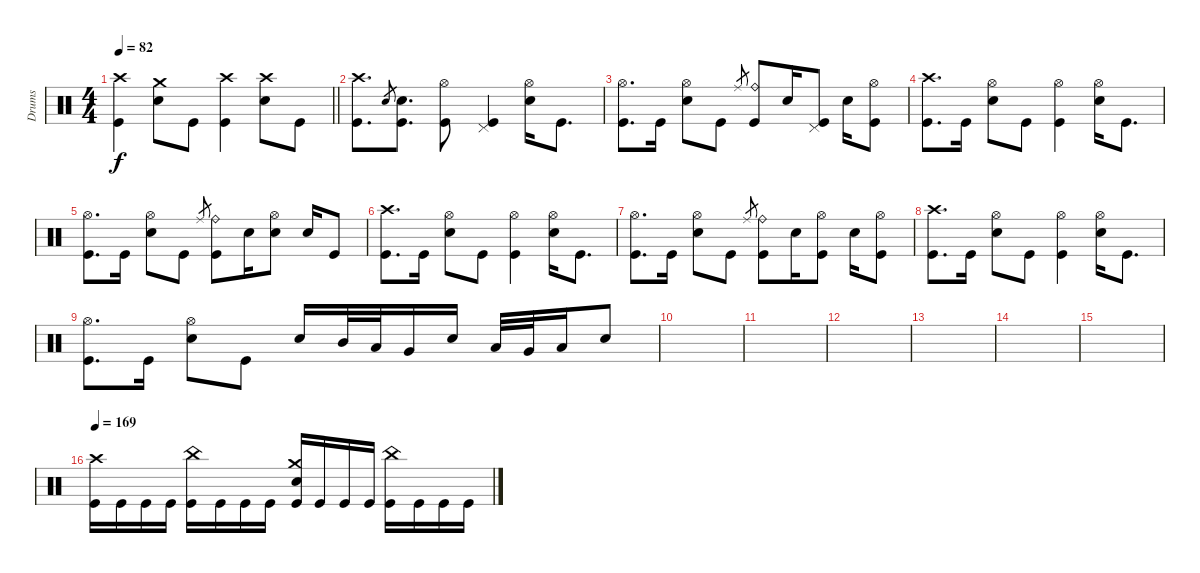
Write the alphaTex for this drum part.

\track ("Drums" "Drums") {instrument percussion}
\staff
\articulation defaults
\ts (4 4)
\tempo 82
\clef neutral
\barLineRight lightlight
\ks c
("Crash high (hit)" "Kick (hit)").4{dy f} ("Crash medium (hit)" "Electric Snare (hit)").8 "Kick (hit)".8 ("Crash high (hit)" "Kick (hit)").4 ("Crash high (hit)" "Electric Snare (hit)").8 "Kick (hit)".8 |
\section ("" "")
("Crash high (hit)" "Kick (hit)").8{d} "Electric Snare (hit)".8{gr} ("Electric Snare (hit)" "Kick (hit)").8{d} ("Hi-Hat (open)" "Kick (hit)").8 ("Pedal Hi-Hat (hit)" "Kick (hit)").4 ("Hi-Hat (open)" "Electric Snare (hit)").16 "Kick (hit)".8{d} |
("Hi-Hat (open)" "Kick (hit)").8{d} "Kick (hit)".16 ("Hi-Hat (open)" "Electric Snare (hit)").8 "Kick (hit)".8 "Ride (middle)".8{gr} ("Ride (bell)" "Kick (hit)").8 "Electric Snare (hit)".16 ("Pedal Hi-Hat (hit)" "Kick (hit)").8 "Electric Snare (hit)".16 ("Hi-Hat (open)" "Kick (hit)").8 |
("Crash high (hit)" "Kick (hit)").8{d} "Kick (hit)".16 ("Hi-Hat (open)" "Electric Snare (hit)").8 "Kick (hit)".8 ("Hi-Hat (open)" "Kick (hit)").4 ("Hi-Hat (open)" "Electric Snare (hit)").16 "Kick (hit)".8{d} |
("Hi-Hat (open)" "Kick (hit)").8{d} "Kick (hit)".16 ("Hi-Hat (open)" "Electric Snare (hit)").8 "Kick (hit)".8 "Ride (middle)".8{gr} ("Ride (bell)" "Kick (hit)").8 "Electric Snare (hit)".16 ("Hi-Hat (open)" "Electric Snare (hit)").8 "Electric Snare (hit)".16 "Kick (hit)".8 |
("Crash high (hit)" "Kick (hit)").8{d} "Kick (hit)".16 ("Hi-Hat (open)" "Electric Snare (hit)").8 "Kick (hit)".8 ("Hi-Hat (open)" "Kick (hit)").4 ("Hi-Hat (open)" "Electric Snare (hit)").16 "Kick (hit)".8{d} |
("Hi-Hat (open)" "Kick (hit)").8{d} "Kick (hit)".16 ("Hi-Hat (open)" "Electric Snare (hit)").8 "Kick (hit)".8 "Ride (middle)".8{gr} ("Ride (bell)" "Kick (hit)").8 "Electric Snare (hit)".16 ("Hi-Hat (open)" "Kick (hit)").8 "Electric Snare (hit)".16 ("Hi-Hat (open)" "Kick (hit)").8 |
("Crash high (hit)" "Kick (hit)").8{d} "Kick (hit)".16 ("Hi-Hat (open)" "Electric Snare (hit)").8 "Kick (hit)".8 ("Hi-Hat (open)" "Kick (hit)").4 ("Hi-Hat (open)" "Electric Snare (hit)").16 "Kick (hit)".8{d} |
("Hi-Hat (open)" "Kick (hit)").8{d} "Kick (hit)".16 ("Hi-Hat (open)" "Electric Snare (hit)").8 "Kick (hit)".8 "Electric Snare (hit)".16 "Mid Tom (hit)".32 "Low Tom (hit)".32 "Very Low Tom (hit)".16 "Electric Snare (hit)".16 "Low Tom (hit)".32 "Very Low Tom (hit)".32 "Low Floor Tom (hit)".16 "Electric Snare (hit)".8 |
|
|
|
|
|
|
\tempo 169
("Crash high (hit)" "Kick (hit)").16 "Kick (hit)".16 "Kick (hit)".16 "Kick (hit)".16 ("China (hit)" "Kick (hit)").16 "Kick (hit)".16 "Kick (hit)".16 "Kick (hit)".16 ("Crash medium (hit)" "Electric Snare (hit)" "Kick (hit)").16 "Kick (hit)".16 "Kick (hit)".16 "Kick (hit)".16 ("China (hit)" "Kick (hit)").16 "Kick (hit)".16 "Kick (hit)".16 "Kick (hit)".16
